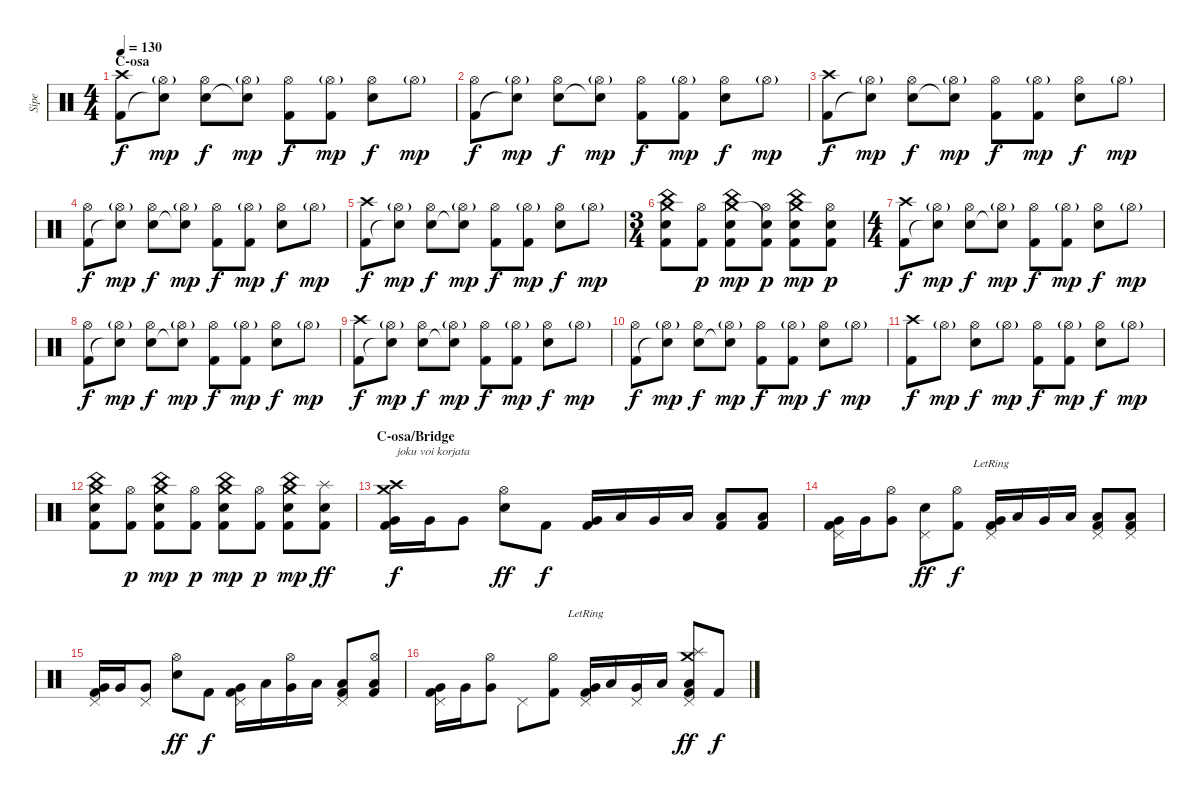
\track ("Sipe" "Sipe") {instrument percussion}
\staff {score}
\articulation defaults
\ts (4 4)
\section ("" "C-osa")
\tempo 130
\clef neutral
\ks c
("Crash high (hit)" "Kick (hit) 2").8{dy f} ("Hi-Hat (open)"{g} "Snare (hit)"{t}).8{dy mp} ("Hi-Hat (open)" "Electric Snare (hit)").8{dy f} ("Hi-Hat (open)"{g} "Snare (hit)"{t}).8{dy mp} ("Hi-Hat (open)" "Kick (hit) 2").8{dy f} ("Hi-Hat (open)"{g} "Kick (hit) 2").8{dy mp} ("Hi-Hat (open)" "Electric Snare (hit)").8{dy f} "Hi-Hat (open)"{g}.8{dy mp} |
("Hi-Hat (open)" "Kick (hit) 2").8{dy f} ("Hi-Hat (open)"{g} "Snare (hit)"{t}).8{dy mp} ("Hi-Hat (open)" "Electric Snare (hit)").8{dy f} ("Hi-Hat (open)"{g} "Snare (hit)"{t}).8{dy mp} ("Hi-Hat (open)" "Kick (hit) 2").8{dy f} ("Hi-Hat (open)"{g} "Kick (hit) 2").8{dy mp} ("Hi-Hat (open)" "Electric Snare (hit)").8{dy f} "Hi-Hat (open)"{g}.8{dy mp} |
("Crash high (hit)" "Kick (hit) 2").8{dy f} ("Hi-Hat (open)"{g} "Snare (hit)"{t}).8{dy mp} ("Hi-Hat (open)" "Electric Snare (hit)").8{dy f} ("Hi-Hat (open)"{g} "Snare (hit)"{t}).8{dy mp} ("Hi-Hat (open)" "Kick (hit) 2").8{dy f} ("Hi-Hat (open)"{g} "Kick (hit) 2").8{dy mp} ("Hi-Hat (open)" "Electric Snare (hit)").8{dy f} "Hi-Hat (open)"{g}.8{dy mp} |
("Hi-Hat (open)" "Kick (hit) 2").8{dy f} ("Hi-Hat (open)"{g} "Snare (hit)"{t}).8{dy mp} ("Hi-Hat (open)" "Electric Snare (hit)").8{dy f} ("Hi-Hat (open)"{g} "Snare (hit)"{t}).8{dy mp} ("Hi-Hat (open)" "Kick (hit) 2").8{dy f} ("Hi-Hat (open)"{g} "Kick (hit) 2").8{dy mp} ("Hi-Hat (open)" "Electric Snare (hit)").8{dy f} "Hi-Hat (open)"{g}.8{dy mp} |
("Crash high (hit)" "Kick (hit) 2").8{dy f} ("Hi-Hat (open)"{g} "Snare (hit)"{t}).8{dy mp} ("Hi-Hat (open)" "Electric Snare (hit)").8{dy f} ("Hi-Hat (open)"{g} "Snare (hit)"{t}).8{dy mp} ("Hi-Hat (open)" "Kick (hit) 2").8{dy f} ("Hi-Hat (open)"{g} "Kick (hit) 2").8{dy mp} ("Hi-Hat (open)" "Electric Snare (hit)").8{dy f} "Hi-Hat (open)"{g}.8{dy mp} |
\ts (3 4)
("China (hit)" "Crash medium (hit)" "Electric Snare (hit)" "Kick (hit) 2").8 ("Hi-Hat (open)" "Kick (hit) 2").8{dy p} ("China (hit)" "Crash medium (hit)" "Electric Snare (hit)" "Kick (hit) 2").8{dy mp} ("Hi-Hat (open)" "Snare (hit)"{t} "Kick (hit) 2").8{dy p} ("China (hit)" "Crash medium (hit)" "Electric Snare (hit)" "Kick (hit) 2").8{dy mp} ("Hi-Hat (open)" "Electric Snare (hit)" "Kick (hit) 2").8{dy p} |
\ts (4 4)
("Crash high (hit)" "Kick (hit) 2").8{dy f} ("Hi-Hat (open)"{g} "Snare (hit)"{t}).8{dy mp} ("Hi-Hat (open)" "Electric Snare (hit)").8{dy f} ("Hi-Hat (open)"{g} "Snare (hit)"{t}).8{dy mp} ("Hi-Hat (open)" "Kick (hit) 2").8{dy f} ("Hi-Hat (open)"{g} "Kick (hit) 2").8{dy mp} ("Hi-Hat (open)" "Electric Snare (hit)").8{dy f} "Hi-Hat (open)"{g}.8{dy mp} |
("Hi-Hat (open)" "Kick (hit) 2").8{dy f} ("Hi-Hat (open)"{g} "Snare (hit)"{t}).8{dy mp} ("Hi-Hat (open)" "Electric Snare (hit)").8{dy f} ("Hi-Hat (open)"{g} "Snare (hit)"{t}).8{dy mp} ("Hi-Hat (open)" "Kick (hit) 2").8{dy f} ("Hi-Hat (open)"{g} "Kick (hit) 2").8{dy mp} ("Hi-Hat (open)" "Electric Snare (hit)").8{dy f} "Hi-Hat (open)"{g}.8{dy mp} |
("Crash high (hit)" "Kick (hit) 2").8{dy f} ("Hi-Hat (open)"{g} "Snare (hit)"{t}).8{dy mp} ("Hi-Hat (open)" "Electric Snare (hit)").8{dy f} ("Hi-Hat (open)"{g} "Snare (hit)"{t}).8{dy mp} ("Hi-Hat (open)" "Kick (hit) 2").8{dy f} ("Hi-Hat (open)"{g} "Kick (hit) 2").8{dy mp} ("Hi-Hat (open)" "Electric Snare (hit)").8{dy f} "Hi-Hat (open)"{g}.8{dy mp} |
("Hi-Hat (open)" "Kick (hit) 2").8{dy f} ("Hi-Hat (open)"{g} "Snare (hit)"{t}).8{dy mp} ("Hi-Hat (open)" "Electric Snare (hit)").8{dy f} ("Hi-Hat (open)"{g} "Snare (hit)"{t}).8{dy mp} ("Hi-Hat (open)" "Kick (hit) 2").8{dy f} ("Hi-Hat (open)"{g} "Kick (hit) 2").8{dy mp} ("Hi-Hat (open)" "Electric Snare (hit)").8{dy f} "Hi-Hat (open)"{g}.8{dy mp} |
("Crash high (hit)" "Kick (hit) 2").8{dy f} "Hi-Hat (open)"{g}.8{dy mp} ("Hi-Hat (open)" "Electric Snare (hit)").8{dy f} "Hi-Hat (open)"{g}.8{dy mp} ("Hi-Hat (open)" "Kick (hit) 2").8{dy f} ("Hi-Hat (open)"{g} "Kick (hit) 2").8{dy mp} ("Hi-Hat (open)" "Electric Snare (hit)").8{dy f} "Hi-Hat (open)"{g}.8{dy mp} |
("China (hit)" "Crash medium (hit)" "Electric Snare (hit)" "Kick (hit) 2").8 ("Hi-Hat (open)" "Kick (hit) 2").8{dy p} ("China (hit)" "Crash medium (hit)" "Electric Snare (hit)" "Kick (hit) 2").8{dy mp} ("Hi-Hat (open)" "Kick (hit) 2").8{dy p} ("China (hit)" "Crash medium (hit)" "Electric Snare (hit)" "Kick (hit) 2").8{dy mp} ("Hi-Hat (open)" "Kick (hit) 2").8{dy p} ("China (hit)" "Crash medium (hit)" "Electric Snare (hit)" "Kick (hit) 2").8{dy mp} ("Splash (hit)" "Electric Snare (hit)" "Kick (hit) 2").8{dy ff} |
\section ("" "C-osa/Bridge")
("Crash high (hit)" "Crash medium (hit)" "Very Low Tom (hit)" "Kick (hit) 2").16{txt "joku voi korjata" dy f} "Very Low Tom (hit)".16 "Very Low Tom (hit)".8 ("Hi-Hat (open)" "Electric Snare (hit)").8{dy ff} "Kick (hit) 2".8{dy f} ("Very Low Tom (hit)" "Kick (hit) 2").16 "Low Floor Tom (hit)".16 "Very Low Tom (hit)".16 "Low Floor Tom (hit)".16 ("Low Floor Tom (hit)" "Kick (hit) 2").8 ("Low Floor Tom (hit)" "Kick (hit) 2").8 |
("Pedal Hi-Hat (hit)" "Very Low Tom (hit)" "Kick (hit) 2").16 "Very Low Tom (hit)".16 ("Hi-Hat (open)" "Very Low Tom (hit)").8 ("Pedal Hi-Hat (hit)" "Electric Snare (hit)").8{dy ff} ("Hi-Hat (open)" "Kick (hit) 2").8{dy f} ("Pedal Hi-Hat (hit)"{lr} "Very Low Tom (hit)" "Kick (hit) 2").16 "Low Floor Tom (hit)".16 "Very Low Tom (hit)".16 "Low Floor Tom (hit)".16 ("Pedal Hi-Hat (hit)" "Low Floor Tom (hit)" "Kick (hit) 2").8 ("Pedal Hi-Hat (hit)" "Low Floor Tom (hit)" "Kick (hit) 2").8 |
("Pedal Hi-Hat (hit)" "Very Low Tom (hit)" "Kick (hit) 2").16 "Very Low Tom (hit)".16 ("Pedal Hi-Hat (hit)" "Very Low Tom (hit)").8 ("Hi-Hat (open)" "Electric Snare (hit)").8{dy ff} "Kick (hit) 2".8{dy f} ("Pedal Hi-Hat (hit)" "Very Low Tom (hit)" "Kick (hit) 2").16 "Low Floor Tom (hit)".16 ("Hi-Hat (open)" "Very Low Tom (hit)").16 "Low Floor Tom (hit)".16 ("Pedal Hi-Hat (hit)" "Low Floor Tom (hit)" "Kick (hit) 2").8 ("Hi-Hat (open)" "Low Floor Tom (hit)" "Kick (hit) 2").8 |
("Pedal Hi-Hat (hit)" "Very Low Tom (hit)" "Kick (hit) 2").16 "Very Low Tom (hit)".16 ("Hi-Hat (open)" "Very Low Tom (hit)").8 "Pedal Hi-Hat (hit)".8 ("Hi-Hat (open)" "Kick (hit) 2").8 ("Pedal Hi-Hat (hit)"{lr} "Very Low Tom (hit)" "Kick (hit) 2").16 "Low Floor Tom (hit)".16 ("Pedal Hi-Hat (hit)" "Very Low Tom (hit)").16 "Low Floor Tom (hit)".16 ("Pedal Hi-Hat (hit)" "Crash medium (hit)" "Splash (hit)" "Low Floor Tom (hit)" "Kick (hit) 2").8{dy ff} "Kick (hit) 2".8{dy f}
